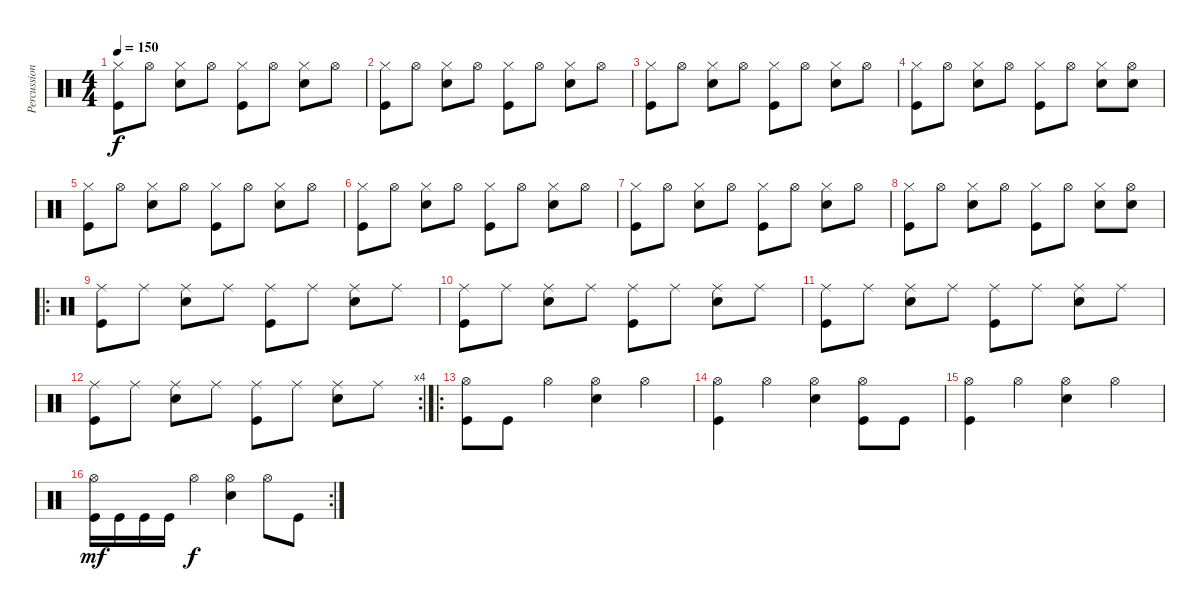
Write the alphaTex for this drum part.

\track ("Percussion" "Percussion") {instrument percussion}
\staff {score}
\articulation defaults
\ts (4 4)
\tempo 150
\clef neutral
\ks c
("Hi-Hat (closed)" "Kick (hit)").8{dy f} "Hi-Hat (open)".8 ("Hi-Hat (closed)" "Electric Snare (hit)").8 "Hi-Hat (open)".8 ("Hi-Hat (closed)" "Kick (hit)").8 "Hi-Hat (open)".8 ("Hi-Hat (closed)" "Electric Snare (hit)").8 "Hi-Hat (open)".8 |
("Hi-Hat (closed)" "Kick (hit)").8 "Hi-Hat (open)".8 ("Hi-Hat (closed)" "Electric Snare (hit)").8 "Hi-Hat (open)".8 ("Hi-Hat (closed)" "Kick (hit)").8 "Hi-Hat (open)".8 ("Hi-Hat (closed)" "Electric Snare (hit)").8 "Hi-Hat (open)".8 |
("Hi-Hat (closed)" "Kick (hit)").8 "Hi-Hat (open)".8 ("Hi-Hat (closed)" "Electric Snare (hit)").8 "Hi-Hat (open)".8 ("Hi-Hat (closed)" "Kick (hit)").8 "Hi-Hat (open)".8 ("Hi-Hat (closed)" "Electric Snare (hit)").8 "Hi-Hat (open)".8 |
("Hi-Hat (closed)" "Kick (hit)").8 "Hi-Hat (open)".8 ("Hi-Hat (closed)" "Electric Snare (hit)").8 "Hi-Hat (open)".8 ("Hi-Hat (closed)" "Kick (hit)").8 "Hi-Hat (open)".8 ("Hi-Hat (closed)" "Electric Snare (hit)").8 ("Hi-Hat (open)" "Electric Snare (hit)").8 |
("Hi-Hat (closed)" "Kick (hit)").8 "Hi-Hat (open)".8 ("Hi-Hat (closed)" "Electric Snare (hit)").8 "Hi-Hat (open)".8 ("Hi-Hat (closed)" "Kick (hit)").8 "Hi-Hat (open)".8 ("Hi-Hat (closed)" "Electric Snare (hit)").8 "Hi-Hat (open)".8 |
("Hi-Hat (closed)" "Kick (hit)").8 "Hi-Hat (open)".8 ("Hi-Hat (closed)" "Electric Snare (hit)").8 "Hi-Hat (open)".8 ("Hi-Hat (closed)" "Kick (hit)").8 "Hi-Hat (open)".8 ("Hi-Hat (closed)" "Electric Snare (hit)").8 "Hi-Hat (open)".8 |
("Hi-Hat (closed)" "Kick (hit)").8 "Hi-Hat (open)".8 ("Hi-Hat (closed)" "Electric Snare (hit)").8 "Hi-Hat (open)".8 ("Hi-Hat (closed)" "Kick (hit)").8 "Hi-Hat (open)".8 ("Hi-Hat (closed)" "Electric Snare (hit)").8 "Hi-Hat (open)".8 |
("Hi-Hat (closed)" "Kick (hit)").8 "Hi-Hat (open)".8 ("Hi-Hat (closed)" "Electric Snare (hit)").8 "Hi-Hat (open)".8 ("Hi-Hat (closed)" "Kick (hit)").8 "Hi-Hat (open)".8 ("Hi-Hat (closed)" "Electric Snare (hit)").8 ("Hi-Hat (open)" "Electric Snare (hit)").8 |
\ro
("Ride (middle)" "Kick (hit)").8 "Ride (middle)".8 ("Ride (middle)" "Electric Snare (hit)").8 "Ride (middle)".8 ("Ride (middle)" "Kick (hit)").8 "Ride (middle)".8 ("Ride (middle)" "Electric Snare (hit)").8 "Ride (middle)".8 |
("Ride (middle)" "Kick (hit)").8 "Ride (middle)".8 ("Ride (middle)" "Electric Snare (hit)").8 "Ride (middle)".8 ("Ride (middle)" "Kick (hit)").8 "Ride (middle)".8 ("Ride (middle)" "Electric Snare (hit)").8 "Ride (middle)".8 |
("Ride (middle)" "Kick (hit)").8 "Ride (middle)".8 ("Ride (middle)" "Electric Snare (hit)").8 "Ride (middle)".8 ("Ride (middle)" "Kick (hit)").8 "Ride (middle)".8 ("Ride (middle)" "Electric Snare (hit)").8 "Ride (middle)".8 |
\rc 4
("Ride (middle)" "Kick (hit)").8 "Ride (middle)".8 ("Ride (middle)" "Electric Snare (hit)").8 "Ride (middle)".8 ("Ride (middle)" "Kick (hit)").8 "Ride (middle)".8 ("Ride (middle)" "Electric Snare (hit)").8 "Ride (middle)".8 |
\ro
("Hi-Hat (open)" "Kick (hit)").8 "Kick (hit)".8 "Hi-Hat (open)".4 ("Hi-Hat (open)" "Electric Snare (hit)").4 "Hi-Hat (open)".4 |
("Hi-Hat (open)" "Kick (hit)").4 "Hi-Hat (open)".4 ("Hi-Hat (open)" "Electric Snare (hit)").4 ("Hi-Hat (open)" "Kick (hit)").8 "Kick (hit)".8 |
("Hi-Hat (open)" "Kick (hit)").4 "Hi-Hat (open)".4 ("Hi-Hat (open)" "Electric Snare (hit)").4 "Hi-Hat (open)".4 |
\rc 2
("Hi-Hat (open)" "Kick (hit)").16{dy mf} "Kick (hit)".16 "Kick (hit)".16 "Kick (hit)".16 "Hi-Hat (open)".4{dy f} ("Hi-Hat (open)" "Electric Snare (hit)").4 "Hi-Hat (open)".8 "Kick (hit)".8
